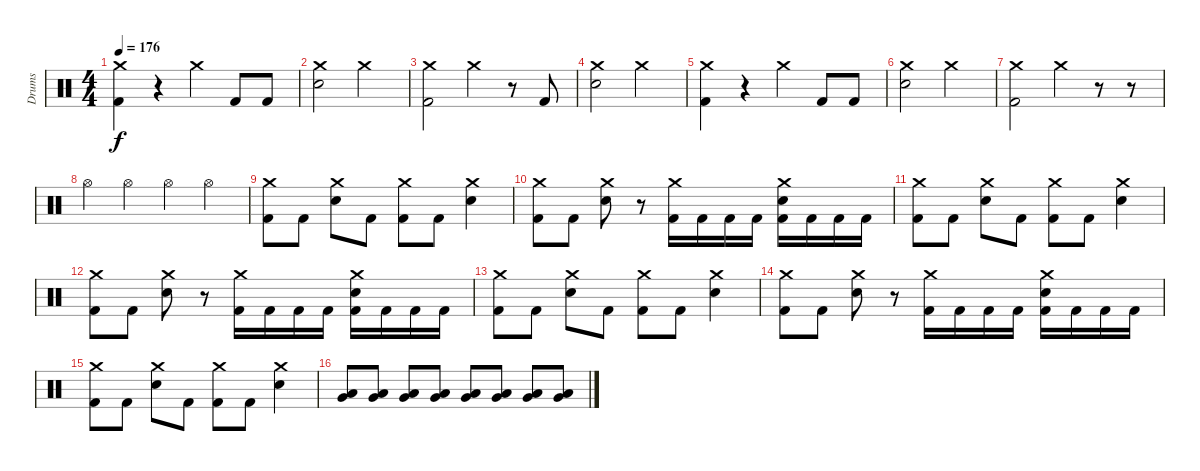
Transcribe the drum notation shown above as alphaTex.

\track ("Drums" "Drums") {instrument percussion}
\staff {score}
\articulation defaults
\ts (4 4)
\tempo 176
\clef neutral
\ks c
("Crash medium (hit)" "Kick (hit) 2").4{dy f} r.4 "Crash medium (hit)".4 "Kick (hit) 2".8 "Kick (hit) 2".8 |
("Crash medium (hit)" "Electric Snare (hit)").2 "Crash medium (hit)".2 |
("Crash medium (hit)" "Kick (hit) 2").2 "Crash medium (hit)".4 r.8 "Kick (hit) 2".8 |
("Crash medium (hit)" "Electric Snare (hit)").2 "Crash medium (hit)".2 |
("Crash medium (hit)" "Kick (hit) 2").4 r.4 "Crash medium (hit)".4 "Kick (hit) 2".8 "Kick (hit) 2".8 |
("Crash medium (hit)" "Electric Snare (hit)").2 "Crash medium (hit)".2 |
("Crash medium (hit)" "Kick (hit) 2").2 "Crash medium (hit)".4 r.8 r.8 |
"Hi-Hat (open)".4 "Hi-Hat (open)".4 "Hi-Hat (open)".4 "Hi-Hat (open)".4 |
("Crash medium (hit)" "Kick (hit) 2").8 "Kick (hit) 2".8 ("Crash medium (hit)" "Electric Snare (hit)").8 "Kick (hit) 2".8 ("Crash medium (hit)" "Kick (hit) 2").8 "Kick (hit) 2".8 ("Crash medium (hit)" "Electric Snare (hit)").4 |
("Crash medium (hit)" "Kick (hit) 2").8 "Kick (hit) 2".8 ("Crash medium (hit)" "Electric Snare (hit)").8 r.8 ("Crash medium (hit)" "Kick (hit) 2").16 "Kick (hit) 2".16 "Kick (hit) 2".16 "Kick (hit) 2".16 ("Crash medium (hit)" "Electric Snare (hit)" "Kick (hit) 2").16 "Kick (hit) 2".16 "Kick (hit) 2".16 "Kick (hit) 2".16 |
("Crash medium (hit)" "Kick (hit) 2").8 "Kick (hit) 2".8 ("Crash medium (hit)" "Electric Snare (hit)").8 "Kick (hit) 2".8 ("Crash medium (hit)" "Kick (hit) 2").8 "Kick (hit) 2".8 ("Crash medium (hit)" "Electric Snare (hit)").4 |
("Crash medium (hit)" "Kick (hit) 2").8 "Kick (hit) 2".8 ("Crash medium (hit)" "Electric Snare (hit)").8 r.8 ("Crash medium (hit)" "Kick (hit) 2").16 "Kick (hit) 2".16 "Kick (hit) 2".16 "Kick (hit) 2".16 ("Crash medium (hit)" "Electric Snare (hit)" "Kick (hit) 2").16 "Kick (hit) 2".16 "Kick (hit) 2".16 "Kick (hit) 2".16 |
("Crash medium (hit)" "Kick (hit) 2").8 "Kick (hit) 2".8 ("Crash medium (hit)" "Electric Snare (hit)").8 "Kick (hit) 2".8 ("Crash medium (hit)" "Kick (hit) 2").8 "Kick (hit) 2".8 ("Crash medium (hit)" "Electric Snare (hit)").4 |
("Crash medium (hit)" "Kick (hit) 2").8 "Kick (hit) 2".8 ("Crash medium (hit)" "Electric Snare (hit)").8 r.8 ("Crash medium (hit)" "Kick (hit) 2").16 "Kick (hit) 2".16 "Kick (hit) 2".16 "Kick (hit) 2".16 ("Crash medium (hit)" "Electric Snare (hit)" "Kick (hit) 2").16 "Kick (hit) 2".16 "Kick (hit) 2".16 "Kick (hit) 2".16 |
("Crash medium (hit)" "Kick (hit) 2").8 "Kick (hit) 2".8 ("Crash medium (hit)" "Electric Snare (hit)").8 "Kick (hit) 2".8 ("Crash medium (hit)" "Kick (hit) 2").8 "Kick (hit) 2".8 ("Crash medium (hit)" "Electric Snare (hit)").4 |
("Very Low Tom (hit)" "Low Tom (hit)").8 ("Very Low Tom (hit)" "Low Tom (hit)").8 ("Very Low Tom (hit)" "Low Tom (hit)").8 ("Very Low Tom (hit)" "Low Tom (hit)").8 ("Very Low Tom (hit)" "Low Tom (hit)").8 ("Very Low Tom (hit)" "Low Tom (hit)").8 ("Very Low Tom (hit)" "Low Tom (hit)").8 ("Very Low Tom (hit)" "Low Tom (hit)").8
